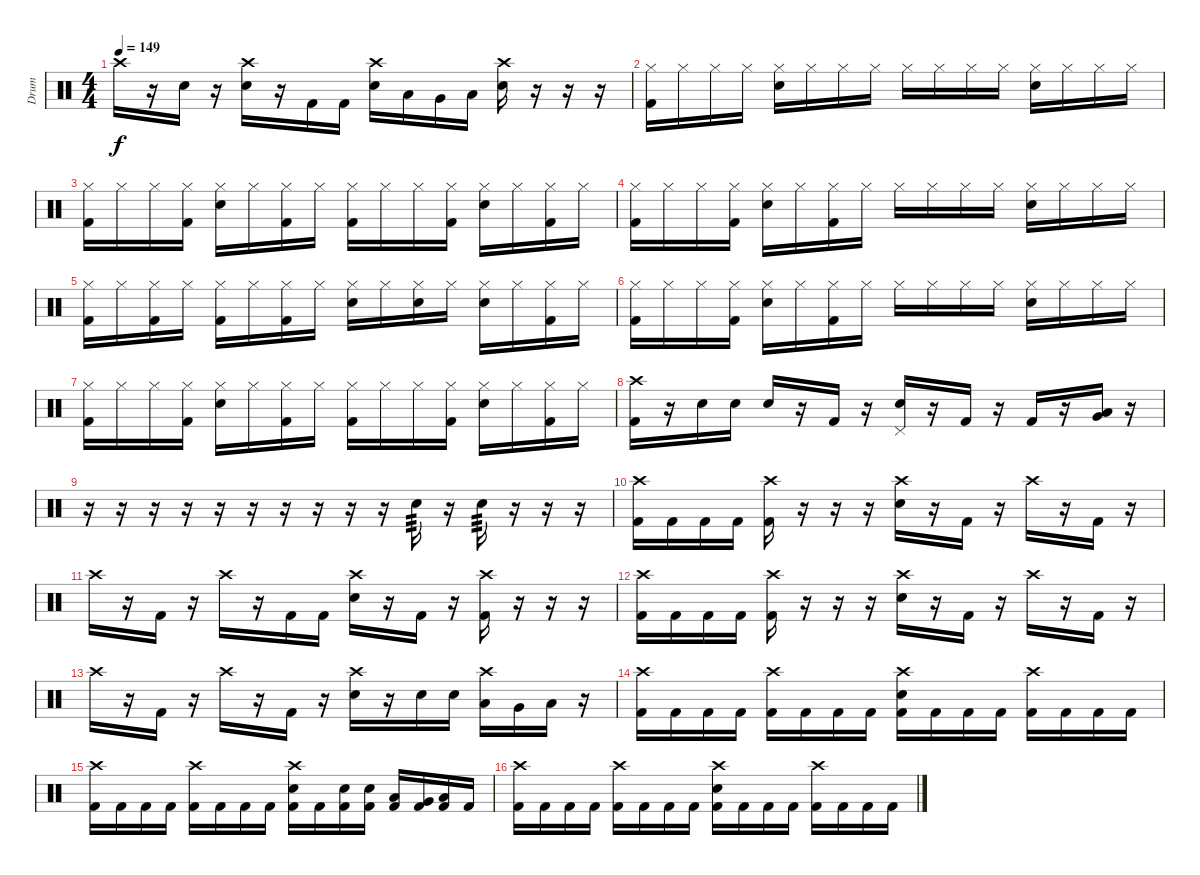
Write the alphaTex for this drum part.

\track ("Drum" "Drum") {instrument percussion}
\staff {score}
\articulation defaults
\ts (4 4)
\tempo 149
\clef neutral
\ks c "Crash high (hit)".16{dy f}
r.16 "Electric Snare (hit)".16 r.16 ("Crash high (hit)" "Electric Snare (hit)").16 r.16 "Kick (hit) 2".16 "Kick (hit) 2".16 ("Crash high (hit)" "Electric Snare (hit)").16 "Low Tom (hit)".16 "Very Low Tom (hit)".16 "Low Floor Tom (hit)".16 ("Crash high (hit)" "Electric Snare (hit)").16 r.16 r.16 r.16 |
("Hi-Hat (closed)" "Kick (hit) 2").16 "Hi-Hat (closed)".16 "Hi-Hat (closed)".16 "Hi-Hat (closed)".16 ("Hi-Hat (closed)" "Electric Snare (hit)").16 "Hi-Hat (closed)".16 "Hi-Hat (closed)".16 "Hi-Hat (closed)".16 "Hi-Hat (closed)".16 "Hi-Hat (closed)".16 "Hi-Hat (closed)".16 "Hi-Hat (closed)".16 ("Hi-Hat (closed)" "Electric Snare (hit)").16 "Hi-Hat (closed)".16 "Hi-Hat (closed)".16 "Hi-Hat (closed)".16 |
("Hi-Hat (closed)" "Kick (hit) 2").16 "Hi-Hat (closed)".16 "Hi-Hat (closed)".16 ("Hi-Hat (closed)" "Kick (hit) 2").16 ("Hi-Hat (closed)" "Electric Snare (hit)").16 "Hi-Hat (closed)".16 ("Hi-Hat (closed)" "Kick (hit) 2").16 "Hi-Hat (closed)".16 ("Hi-Hat (closed)" "Kick (hit) 2").16 "Hi-Hat (closed)".16 "Hi-Hat (closed)".16 ("Hi-Hat (closed)" "Kick (hit) 2").16 ("Hi-Hat (closed)" "Electric Snare (hit)").16 "Hi-Hat (closed)".16 ("Hi-Hat (closed)" "Kick (hit) 2").16 "Hi-Hat (closed)".16 |
("Hi-Hat (closed)" "Kick (hit) 2").16 "Hi-Hat (closed)".16 "Hi-Hat (closed)".16 ("Hi-Hat (closed)" "Kick (hit) 2").16 ("Hi-Hat (closed)" "Electric Snare (hit)").16 "Hi-Hat (closed)".16 ("Hi-Hat (closed)" "Kick (hit) 2").16 "Hi-Hat (closed)".16 "Hi-Hat (closed)".16 "Hi-Hat (closed)".16 "Hi-Hat (closed)".16 "Hi-Hat (closed)".16 ("Hi-Hat (closed)" "Electric Snare (hit)").16 "Hi-Hat (closed)".16 "Hi-Hat (closed)".16 "Hi-Hat (closed)".16 |
("Hi-Hat (closed)" "Kick (hit) 2").16 "Hi-Hat (closed)".16 ("Hi-Hat (closed)" "Kick (hit) 2").16 "Hi-Hat (closed)".16 ("Hi-Hat (closed)" "Kick (hit) 2").16 "Hi-Hat (closed)".16 ("Hi-Hat (closed)" "Kick (hit) 2").16 "Hi-Hat (closed)".16 ("Hi-Hat (closed)" "Electric Snare (hit)").16 "Hi-Hat (closed)".16 ("Hi-Hat (closed)" "Electric Snare (hit)").16 "Hi-Hat (closed)".16 ("Hi-Hat (closed)" "Electric Snare (hit)").16 "Hi-Hat (closed)".16 ("Hi-Hat (closed)" "Kick (hit) 2").16 "Hi-Hat (closed)".16 |
("Hi-Hat (closed)" "Kick (hit) 2").16 "Hi-Hat (closed)".16 "Hi-Hat (closed)".16 ("Hi-Hat (closed)" "Kick (hit) 2").16 ("Hi-Hat (closed)" "Electric Snare (hit)").16 "Hi-Hat (closed)".16 ("Hi-Hat (closed)" "Kick (hit) 2").16 "Hi-Hat (closed)".16 "Hi-Hat (closed)".16 "Hi-Hat (closed)".16 "Hi-Hat (closed)".16 "Hi-Hat (closed)".16 ("Hi-Hat (closed)" "Electric Snare (hit)").16 "Hi-Hat (closed)".16 "Hi-Hat (closed)".16 "Hi-Hat (closed)".16 |
("Hi-Hat (closed)" "Kick (hit) 2").16 "Hi-Hat (closed)".16 "Hi-Hat (closed)".16 ("Hi-Hat (closed)" "Kick (hit) 2").16 ("Hi-Hat (closed)" "Electric Snare (hit)").16 "Hi-Hat (closed)".16 ("Hi-Hat (closed)" "Kick (hit) 2").16 "Hi-Hat (closed)".16 ("Hi-Hat (closed)" "Kick (hit) 2").16 "Hi-Hat (closed)".16 "Hi-Hat (closed)".16 ("Hi-Hat (closed)" "Kick (hit) 2").16 ("Hi-Hat (closed)" "Electric Snare (hit)").16 "Hi-Hat (closed)".16 ("Hi-Hat (closed)" "Kick (hit) 2").16 "Hi-Hat (closed)".16 |
("Crash high (hit)" "Kick (hit) 2").16 r.16 "Electric Snare (hit)".16 "Electric Snare (hit)".16 "Electric Snare (hit)".16 r.16 "Kick (hit) 2".16 r.16 ("Electric Snare (hit)" "Pedal Hi-Hat (hit)").16 r.16 "Kick (hit) 2".16 r.16 "Kick (hit) 2".16 r.16 ("Very Low Tom (hit)" "Low Floor Tom (hit)").16 r.16 |
r.16 r.16 r.16 r.16 r.16 r.16 r.16 r.16 r.16 r.16 "Electric Snare (hit)".16{tp 3} r.16 "Electric Snare (hit)".16{tp 3} r.16 r.16 r.16 |
("Crash high (hit)" "Kick (hit) 2").16 "Kick (hit) 2".16 "Kick (hit) 2".16 "Kick (hit) 2".16 ("Crash high (hit)" "Kick (hit) 2").16 r.16 r.16 r.16 ("Crash high (hit)" "Electric Snare (hit)").16 r.16 "Kick (hit) 2".16 r.16 "Crash high (hit)".16 r.16 "Kick (hit) 2".16 r.16 |
"Crash high (hit)".16 r.16 "Kick (hit) 2".16 r.16 "Crash high (hit)".16 r.16 "Kick (hit) 2".16 "Kick (hit) 2".16 ("Crash high (hit)" "Electric Snare (hit)").16 r.16 "Kick (hit) 2".16 r.16 ("Crash high (hit)" "Kick (hit) 2").16 r.16 r.16 r.16 |
("Crash high (hit)" "Kick (hit) 2").16 "Kick (hit) 2".16 "Kick (hit) 2".16 "Kick (hit) 2".16 ("Crash high (hit)" "Kick (hit) 2").16 r.16 r.16 r.16 ("Crash high (hit)" "Electric Snare (hit)").16 r.16 "Kick (hit) 2".16 r.16 "Crash high (hit)".16 r.16 "Kick (hit) 2".16 r.16 |
"Crash high (hit)".16 r.16 "Kick (hit) 2".16 r.16 "Crash high (hit)".16 r.16 "Kick (hit) 2".16 r.16 ("Crash high (hit)" "Electric Snare (hit)").16 r.16 "Electric Snare (hit)".16 "Electric Snare (hit)".16 ("Crash high (hit)" "Low Tom (hit)").16 "Very Low Tom (hit)".16 "Low Floor Tom (hit)".16 r.16 |
("Crash high (hit)" "Kick (hit) 2").16 "Kick (hit) 2".16 "Kick (hit) 2".16 "Kick (hit) 2".16 ("Crash high (hit)" "Kick (hit) 2").16 "Kick (hit) 2".16 "Kick (hit) 2".16 "Kick (hit) 2".16 ("Crash high (hit)" "Electric Snare (hit)" "Kick (hit) 2").16 "Kick (hit) 2".16 "Kick (hit) 2".16 "Kick (hit) 2".16 ("Crash high (hit)" "Kick (hit) 2").16 "Kick (hit) 2".16 "Kick (hit) 2".16 "Kick (hit) 2".16 |
("Crash high (hit)" "Kick (hit) 2").16 "Kick (hit) 2".16 "Kick (hit) 2".16 "Kick (hit) 2".16 ("Crash high (hit)" "Kick (hit) 2").16 "Kick (hit) 2".16 "Kick (hit) 2".16 "Kick (hit) 2".16 ("Crash high (hit)" "Electric Snare (hit)" "Kick (hit) 2").16 "Kick (hit) 2".16 ("Electric Snare (hit)" "Kick (hit) 2").16 ("Electric Snare (hit)" "Kick (hit) 2").16 ("Low Tom (hit)" "Kick (hit) 2").16 ("Very Low Tom (hit)" "Kick (hit) 2").16 ("Low Floor Tom (hit)" "Kick (hit) 2").16 "Kick (hit) 2".16 |
("Crash high (hit)" "Kick (hit) 2").16 "Kick (hit) 2".16 "Kick (hit) 2".16 "Kick (hit) 2".16 ("Crash high (hit)" "Kick (hit) 2").16 "Kick (hit) 2".16 "Kick (hit) 2".16 "Kick (hit) 2".16 ("Crash high (hit)" "Electric Snare (hit)" "Kick (hit) 2").16 "Kick (hit) 2".16 "Kick (hit) 2".16 "Kick (hit) 2".16 ("Crash high (hit)" "Kick (hit) 2").16 "Kick (hit) 2".16 "Kick (hit) 2".16 "Kick (hit) 2".16
